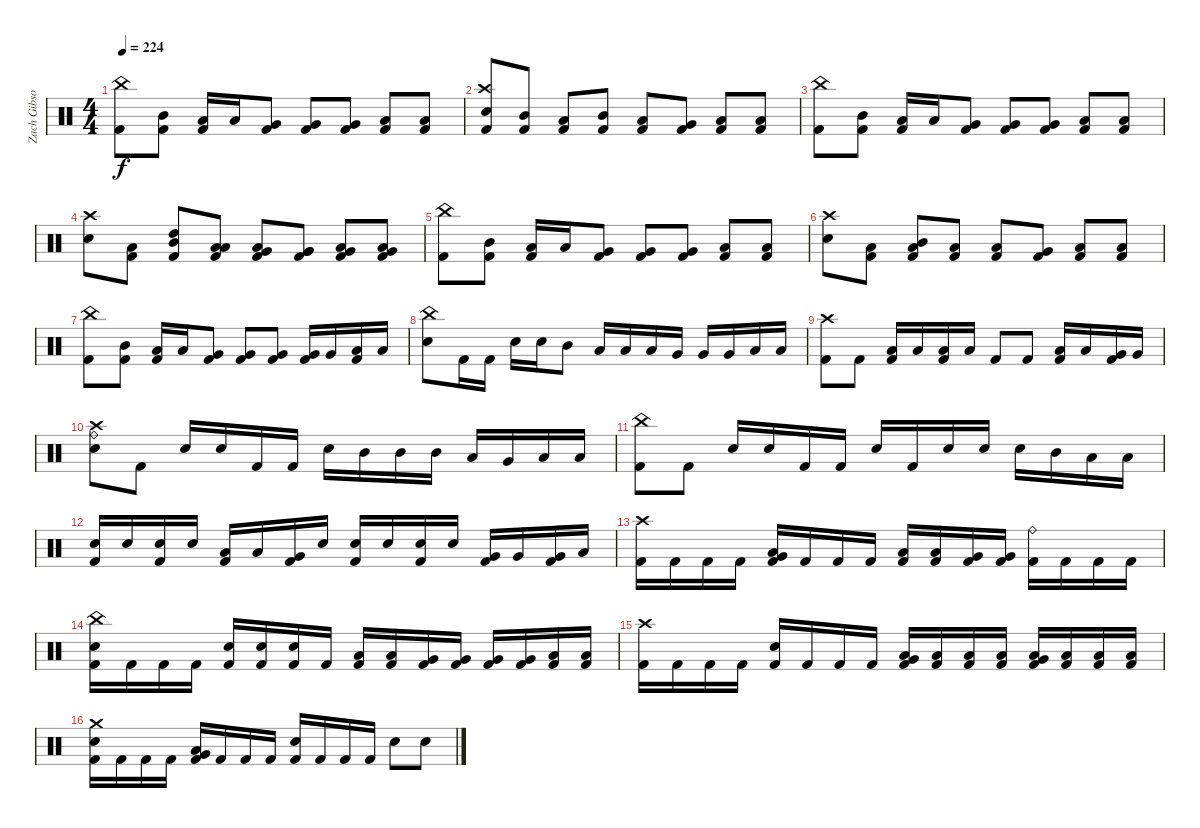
\track ("Zach Gibson (Drums)" "Zach Gibso") {instrument percussion}
\staff {score}
\articulation defaults
\ts (4 4)
\tempo 224
\clef neutral
\ks c
("China (hit)" "Kick (hit) 2").8{dy f} ("Mid Tom (hit)" "Kick (hit) 2").8 ("Low Tom (hit)" "Kick (hit) 2").16 "Low Tom (hit)".16 ("Very Low Tom (hit)" "Kick (hit) 2").8 ("Very Low Tom (hit)" "Kick (hit) 2").8 ("Very Low Tom (hit)" "Kick (hit) 2").8 ("Low Floor Tom (hit)" "Kick (hit) 2").8 ("Low Floor Tom (hit)" "Kick (hit) 2").8 |
("Crash high (hit)" "Snare (hit) 2" "Kick (hit) 2").8 ("Mid Tom (hit)" "Kick (hit) 2").8 ("Low Tom (hit)" "Kick (hit) 2").8 ("Mid Tom (hit)" "Kick (hit) 2").8 ("Low Tom (hit)" "Kick (hit) 2").8 ("Very Low Tom (hit)" "Kick (hit) 2").8 ("Low Floor Tom (hit)" "Kick (hit) 2").8 ("Low Floor Tom (hit)" "Kick (hit) 2").8 |
("China (hit)" "Kick (hit) 2").8 ("Mid Tom (hit)" "Kick (hit) 2").8 ("Low Tom (hit)" "Kick (hit) 2").16 "Low Tom (hit)".16 ("Very Low Tom (hit)" "Kick (hit) 2").8 ("Very Low Tom (hit)" "Kick (hit) 2").8 ("Very Low Tom (hit)" "Kick (hit) 2").8 ("Low Floor Tom (hit)" "Kick (hit) 2").8 ("Low Floor Tom (hit)" "Kick (hit) 2").8 |
("Crash high (hit)" "Snare (hit) 2").8 ("Low Tom (hit)" "Kick (hit) 2").8 ("High Tom (hit)" "Mid Tom (hit)" "Kick (hit) 2").8 ("Low Tom (hit)" "Low Tom (hit)" "Kick (hit) 2").8 ("Very Low Tom (hit)" "Low Tom (hit)" "Kick (hit) 2").8 ("Very Low Tom (hit)" "Very Low Tom (hit)" "Kick (hit) 2").8 ("Very Low Tom (hit)" "Low Floor Tom (hit)" "Kick (hit) 2").8 ("Very Low Tom (hit)" "Low Floor Tom (hit)" "Kick (hit) 2").8 |
("China (hit)" "Kick (hit) 2").8 ("Mid Tom (hit)" "Kick (hit) 2").8 ("Low Tom (hit)" "Kick (hit) 2").16 "Low Tom (hit)".16 ("Very Low Tom (hit)" "Kick (hit) 2").8 ("Very Low Tom (hit)" "Kick (hit) 2").8 ("Very Low Tom (hit)" "Kick (hit) 2").8 ("Low Floor Tom (hit)" "Kick (hit) 2").8 ("Low Floor Tom (hit)" "Kick (hit) 2").8 |
("Crash high (hit)" "Snare (hit) 2").8 ("Low Floor Tom (hit)" "Kick (hit) 2").8 ("Mid Tom (hit)" "Low Tom (hit)" "Kick (hit) 2").8 ("Low Floor Tom (hit)" "Kick (hit) 2").8 ("Low Tom (hit)" "Kick (hit) 2").8 ("Very Low Tom (hit)" "Kick (hit) 2").8 ("Low Floor Tom (hit)" "Kick (hit) 2").8 ("Low Floor Tom (hit)" "Kick (hit) 2").8 |
("China (hit)" "Kick (hit) 2").8 ("Mid Tom (hit)" "Kick (hit) 2").8 ("Low Tom (hit)" "Kick (hit) 2").16 "Low Tom (hit)".16 ("Very Low Tom (hit)" "Kick (hit) 2").8 ("Very Low Tom (hit)" "Kick (hit) 2").8 ("Very Low Tom (hit)" "Kick (hit) 2").8 ("Very Low Tom (hit)" "Kick (hit) 2").16 "Very Low Tom (hit)".16 ("Low Floor Tom (hit)" "Kick (hit) 2").16 "Low Floor Tom (hit)".16 |
("China (hit)" "Snare (hit) 2").8 "Kick (hit) 2".16 "Kick (hit) 2".16 "Snare (hit) 2".16 "Snare (hit) 2".16 "Mid Tom (hit)".8 "Low Tom (hit)".16 "Low Tom (hit)".16 "Low Tom (hit)".16 "Very Low Tom (hit)".16 "Very Low Tom (hit)".16 "Very Low Tom (hit)".16 "Low Floor Tom (hit)".16 "Low Floor Tom (hit)".16 |
("Crash high (hit)" "Kick (hit) 2").8 "Kick (hit) 2".8 ("Low Tom (hit)" "Kick (hit) 2").16 "Low Tom (hit)".16 ("Low Tom (hit)" "Kick (hit) 2").16 "Low Tom (hit)".16 "Kick (hit) 2".8 "Kick (hit) 2".8 ("Low Tom (hit)" "Kick (hit) 2").16 "Low Tom (hit)".16 ("Very Low Tom (hit)" "Kick (hit) 2").16 "Very Low Tom (hit)".16 |
("Crash high (hit)" "Ride (bell)" "Snare (hit) 2").8 "Kick (hit) 2".8 "Snare (hit) 2".16 "Snare (hit) 2".16 "Kick (hit) 2".16 "Kick (hit) 2".16 "Snare (hit) 2".16 "Mid Tom (hit)".16 "Mid Tom (hit)".16 "Mid Tom (hit)".16 "Low Tom (hit)".16 "Very Low Tom (hit)".16 "Low Floor Tom (hit)".16 "Low Floor Tom (hit)".16 |
("China (hit)" "Kick (hit) 2").8 "Kick (hit) 2".8 "Snare (hit) 2".16 "Snare (hit) 2".16 "Kick (hit) 2".16 "Kick (hit) 2".16 "Snare (hit) 2".16 "Kick (hit) 2".16 "Snare (hit) 2".16 "Snare (hit) 2".16 "Snare (hit) 2".16 "Mid Tom (hit)".16 "Low Tom (hit)".16 "Low Tom (hit)".16 |
("Snare (hit) 2" "Kick (hit) 2").16 "Snare (hit) 2".16 ("Snare (hit) 2" "Kick (hit) 2").16 "Snare (hit) 2".16 ("Low Tom (hit)" "Kick (hit) 2").16 "Low Tom (hit)".16 ("Very Low Tom (hit)" "Kick (hit) 2").16 "Snare (hit) 2".16 ("Snare (hit) 2" "Kick (hit) 2").16 "Snare (hit) 2".16 ("Snare (hit) 2" "Kick (hit) 2").16 "Snare (hit) 2".16 ("Very Low Tom (hit)" "Kick (hit) 2").16 "Very Low Tom (hit)".16 ("Very Low Tom (hit)" "Kick (hit) 2").16 "Low Floor Tom (hit)".16 |
("Crash high (hit)" "Kick (hit) 2").16 "Kick (hit) 2".16 "Kick (hit) 2".16 "Kick (hit) 2".16 ("Low Tom (hit)" "Very Low Tom (hit)" "Kick (hit) 2").16 "Kick (hit) 2".16 "Kick (hit) 2".16 "Kick (hit) 2".16 ("Low Tom (hit)" "Kick (hit) 2").16 ("Low Tom (hit)" "Kick (hit) 2").16 ("Very Low Tom (hit)" "Kick (hit) 2").16 ("Very Low Tom (hit)" "Kick (hit) 2").16 ("Ride (bell)" "Kick (hit) 2").16 "Kick (hit) 2".16 "Kick (hit) 2".16 "Kick (hit) 2".16 |
("China (hit)" "Snare (hit) 2" "Kick (hit) 2").16 "Kick (hit) 2".16 "Kick (hit) 2".16 "Kick (hit) 2".16 ("Snare (hit) 2" "Kick (hit) 2").16 ("Snare (hit) 2" "Kick (hit) 2").16 ("Snare (hit) 2" "Kick (hit) 2").16 "Kick (hit) 2".16 ("Low Tom (hit)" "Kick (hit) 2").16 ("Low Tom (hit)" "Kick (hit) 2").16 ("Very Low Tom (hit)" "Kick (hit) 2").16 ("Very Low Tom (hit)" "Kick (hit) 2").16 ("Very Low Tom (hit)" "Kick (hit) 2").16 ("Very Low Tom (hit)" "Kick (hit) 2").16 ("Low Floor Tom (hit)" "Kick (hit) 2").16 ("Low Floor Tom (hit)" "Kick (hit) 2").16 |
("Crash high (hit)" "Kick (hit) 2").16 "Kick (hit) 2".16 "Kick (hit) 2".16 "Kick (hit) 2".16 ("Snare (hit) 2" "Kick (hit) 2").16 "Kick (hit) 2".16 "Kick (hit) 2".16 "Kick (hit) 2".16 ("Very Low Tom (hit)" "Low Tom (hit)" "Kick (hit) 2").16 ("Low Floor Tom (hit)" "Kick (hit) 2").16 ("Low Floor Tom (hit)" "Kick (hit) 2").16 ("Low Floor Tom (hit)" "Kick (hit) 2").16 ("Low Floor Tom (hit)" "Very Low Tom (hit)" "Kick (hit) 2").16 ("Low Floor Tom (hit)" "Kick (hit) 2").16 ("Low Floor Tom (hit)" "Kick (hit) 2").16 ("Low Floor Tom (hit)" "Kick (hit) 2").16 |
("Crash medium (hit)" "Snare (hit) 2" "Kick (hit) 2").16 "Kick (hit) 2".16 "Kick (hit) 2".16 "Kick (hit) 2".16 ("Low Floor Tom (hit)" "Very Low Tom (hit)" "Kick (hit) 2").16 "Kick (hit) 2".16 "Kick (hit) 2".16 "Kick (hit) 2".16 ("Snare (hit) 2" "Kick (hit) 2").16 "Kick (hit) 2".16 "Kick (hit) 2".16 "Kick (hit) 2".16 "Snare (hit) 2".8 "Snare (hit) 2".8
